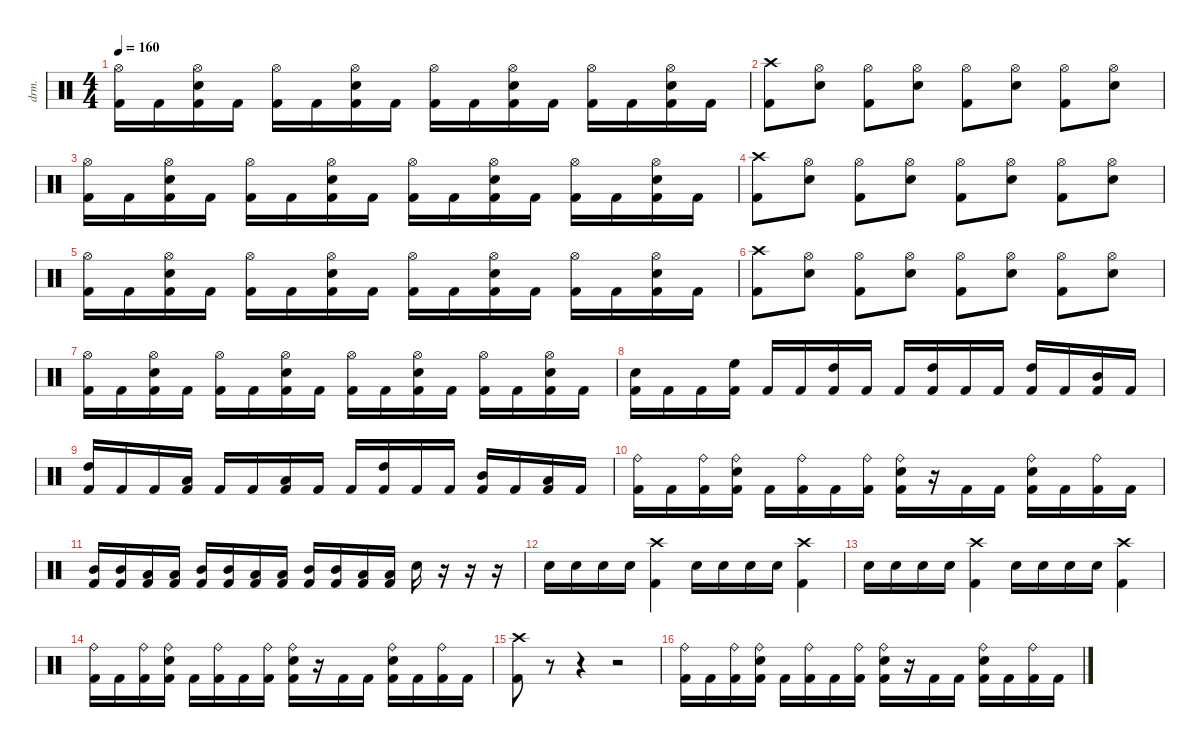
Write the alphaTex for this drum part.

\defaultSystemsLayout 4
\hideDynamics
\bracketExtendMode nobrackets
\track ("Menza" "drm.") {instrument percussion}
\staff {score}
\articulation defaults
\ts (4 4)
\tempo 160
\clef neutral
\ks c
("Hi-Hat (open)" "Kick (hit) 2").16{dy f} "Kick (hit) 2".16 ("Hi-Hat (open)" "Snare (hit) 2" "Kick (hit) 2").16 "Kick (hit) 2".16 ("Hi-Hat (open)" "Kick (hit) 2").16 "Kick (hit) 2".16 ("Hi-Hat (open)" "Snare (hit) 2" "Kick (hit) 2").16 "Kick (hit) 2".16 ("Hi-Hat (open)" "Kick (hit) 2").16 "Kick (hit) 2".16 ("Hi-Hat (open)" "Snare (hit) 2" "Kick (hit) 2").16 "Kick (hit) 2".16 ("Hi-Hat (open)" "Kick (hit) 2").16 "Kick (hit) 2".16 ("Hi-Hat (open)" "Snare (hit) 2" "Kick (hit) 2").16 "Kick (hit) 2".16 |
("Crash high (hit)" "Kick (hit) 2").8 ("Hi-Hat (open)" "Snare (hit) 2").8 ("Hi-Hat (open)" "Kick (hit) 2").8 ("Hi-Hat (open)" "Snare (hit) 2").8 ("Hi-Hat (open)" "Kick (hit) 2").8 ("Hi-Hat (open)" "Snare (hit) 2").8 ("Hi-Hat (open)" "Kick (hit) 2").8 ("Hi-Hat (open)" "Snare (hit) 2").8 |
("Hi-Hat (open)" "Kick (hit) 2").16 "Kick (hit) 2".16 ("Hi-Hat (open)" "Snare (hit) 2" "Kick (hit) 2").16 "Kick (hit) 2".16 ("Hi-Hat (open)" "Kick (hit) 2").16 "Kick (hit) 2".16 ("Hi-Hat (open)" "Snare (hit) 2" "Kick (hit) 2").16 "Kick (hit) 2".16 ("Hi-Hat (open)" "Kick (hit) 2").16 "Kick (hit) 2".16 ("Hi-Hat (open)" "Snare (hit) 2" "Kick (hit) 2").16 "Kick (hit) 2".16 ("Hi-Hat (open)" "Kick (hit) 2").16 "Kick (hit) 2".16 ("Hi-Hat (open)" "Snare (hit) 2" "Kick (hit) 2").16 "Kick (hit) 2".16 |
("Crash high (hit)" "Kick (hit) 2").8 ("Hi-Hat (open)" "Snare (hit) 2").8 ("Hi-Hat (open)" "Kick (hit) 2").8 ("Hi-Hat (open)" "Snare (hit) 2").8 ("Hi-Hat (open)" "Kick (hit) 2").8 ("Hi-Hat (open)" "Snare (hit) 2").8 ("Hi-Hat (open)" "Kick (hit) 2").8 ("Hi-Hat (open)" "Snare (hit) 2").8 |
("Hi-Hat (open)" "Kick (hit) 2").16 "Kick (hit) 2".16 ("Hi-Hat (open)" "Snare (hit) 2" "Kick (hit) 2").16 "Kick (hit) 2".16 ("Hi-Hat (open)" "Kick (hit) 2").16 "Kick (hit) 2".16 ("Hi-Hat (open)" "Snare (hit) 2" "Kick (hit) 2").16 "Kick (hit) 2".16 ("Hi-Hat (open)" "Kick (hit) 2").16 "Kick (hit) 2".16 ("Hi-Hat (open)" "Snare (hit) 2" "Kick (hit) 2").16 "Kick (hit) 2".16 ("Hi-Hat (open)" "Kick (hit) 2").16 "Kick (hit) 2".16 ("Hi-Hat (open)" "Snare (hit) 2" "Kick (hit) 2").16 "Kick (hit) 2".16 |
("Crash high (hit)" "Kick (hit) 2").8 ("Hi-Hat (open)" "Snare (hit) 2").8 ("Hi-Hat (open)" "Kick (hit) 2").8 ("Hi-Hat (open)" "Snare (hit) 2").8 ("Hi-Hat (open)" "Kick (hit) 2").8 ("Hi-Hat (open)" "Snare (hit) 2").8 ("Hi-Hat (open)" "Kick (hit) 2").8 ("Hi-Hat (open)" "Snare (hit) 2").8 |
("Hi-Hat (open)" "Kick (hit) 2").16 "Kick (hit) 2".16 ("Hi-Hat (open)" "Snare (hit) 2" "Kick (hit) 2").16 "Kick (hit) 2".16 ("Hi-Hat (open)" "Kick (hit) 2").16 "Kick (hit) 2".16 ("Hi-Hat (open)" "Snare (hit) 2" "Kick (hit) 2").16 "Kick (hit) 2".16 ("Hi-Hat (open)" "Kick (hit) 2").16 "Kick (hit) 2".16 ("Hi-Hat (open)" "Snare (hit) 2" "Kick (hit) 2").16 "Kick (hit) 2".16 ("Hi-Hat (open)" "Kick (hit) 2").16 "Kick (hit) 2".16 ("Hi-Hat (open)" "Snare (hit) 2" "Kick (hit) 2").16 "Kick (hit) 2".16 |
("Snare (hit) 2" "Kick (hit) 2").16 "Kick (hit) 2".16 "Kick (hit) 2".16 ("High Floor Tom (hit)" "Kick (hit) 2").16 "Kick (hit) 2".16 "Kick (hit) 2".16 ("High Tom (hit)" "Kick (hit) 2").16 "Kick (hit) 2".16 "Kick (hit) 2".16 ("High Tom (hit)" "Kick (hit) 2").16 "Kick (hit) 2".16 "Kick (hit) 2".16 ("High Tom (hit)" "Kick (hit) 2").16 "Kick (hit) 2".16 ("Mid Tom (hit)" "Kick (hit) 2").16 "Kick (hit) 2".16 |
("High Tom (hit)" "Kick (hit) 2").16 "Kick (hit) 2".16 "Kick (hit) 2".16 ("Low Tom (hit)" "Kick (hit) 2").16 "Kick (hit) 2".16 "Kick (hit) 2".16 ("Low Tom (hit)" "Kick (hit) 2").16 "Kick (hit) 2".16 "Kick (hit) 2".16 ("High Tom (hit)" "Kick (hit) 2").16 "Kick (hit) 2".16 "Kick (hit) 2".16 ("Mid Tom (hit)" "Kick (hit) 2").16 "Kick (hit) 2".16 ("Low Tom (hit)" "Kick (hit) 2").16 "Kick (hit) 2".16 |
("Ride (bell)" "Kick (hit) 2").16 "Kick (hit) 2".16 ("Ride (bell)" "Kick (hit) 2").16 ("Ride (bell)" "Snare (hit) 2" "Kick (hit) 2").16 "Kick (hit) 2".16 ("Ride (bell)" "Kick (hit) 2").16 "Kick (hit) 2".16 ("Ride (bell)" "Kick (hit) 2").16 ("Ride (bell)" "Snare (hit) 2" "Kick (hit) 2").16 r.16 "Kick (hit) 2".16 "Kick (hit) 2".16 ("Ride (bell)" "Snare (hit) 2" "Kick (hit) 2").16 "Kick (hit) 2".16 ("Ride (bell)" "Kick (hit) 2").16 "Kick (hit) 2".16 |
("Mid Tom (hit)" "Kick (hit) 2").16 ("Mid Tom (hit)" "Kick (hit) 2").16 ("Low Tom (hit)" "Kick (hit) 2").16 ("Low Tom (hit)" "Kick (hit) 2").16 ("Mid Tom (hit)" "Kick (hit) 2").16 ("Mid Tom (hit)" "Kick (hit) 2").16 ("Low Tom (hit)" "Kick (hit) 2").16 ("Low Tom (hit)" "Kick (hit) 2").16 ("Mid Tom (hit)" "Kick (hit) 2").16 ("Mid Tom (hit)" "Kick (hit) 2").16 ("Low Tom (hit)" "Kick (hit) 2").16 ("Low Tom (hit)" "Kick (hit) 2").16 "Snare (hit) 2".16 r.16 r.16 r.16 |
"Snare (hit) 2".16 "Snare (hit) 2".16 "Snare (hit) 2".16 "Snare (hit) 2".16 ("Crash high (hit)" "Kick (hit) 2").4 "Snare (hit) 2".16 "Snare (hit) 2".16 "Snare (hit) 2".16 "Snare (hit) 2".16 ("Crash high (hit)" "Kick (hit) 2").4 |
"Snare (hit) 2".16 "Snare (hit) 2".16 "Snare (hit) 2".16 "Snare (hit) 2".16 ("Crash high (hit)" "Kick (hit) 2").4 "Snare (hit) 2".16 "Snare (hit) 2".16 "Snare (hit) 2".16 "Snare (hit) 2".16 ("Crash high (hit)" "Kick (hit) 2").4 |
("Ride (bell)" "Kick (hit) 2").16 "Kick (hit) 2".16 ("Ride (bell)" "Kick (hit) 2").16 ("Ride (bell)" "Snare (hit) 2" "Kick (hit) 2").16 "Kick (hit) 2".16 ("Ride (bell)" "Kick (hit) 2").16 "Kick (hit) 2".16 ("Ride (bell)" "Kick (hit) 2").16 ("Ride (bell)" "Snare (hit) 2" "Kick (hit) 2").16 r.16 "Kick (hit) 2".16 "Kick (hit) 2".16 ("Ride (bell)" "Snare (hit) 2" "Kick (hit) 2").16 "Kick (hit) 2".16 ("Ride (bell)" "Kick (hit) 2").16 "Kick (hit) 2".16 |
("Crash high (hit)" "Kick (hit) 2").8 r.8 r.4 r.2 |
("Ride (bell)" "Kick (hit) 2").16 "Kick (hit) 2".16 ("Ride (bell)" "Kick (hit) 2").16 ("Ride (bell)" "Snare (hit) 2" "Kick (hit) 2").16 "Kick (hit) 2".16 ("Ride (bell)" "Kick (hit) 2").16 "Kick (hit) 2".16 ("Ride (bell)" "Kick (hit) 2").16 ("Ride (bell)" "Snare (hit) 2" "Kick (hit) 2").16 r.16 "Kick (hit) 2".16 "Kick (hit) 2".16 ("Ride (bell)" "Snare (hit) 2" "Kick (hit) 2").16 "Kick (hit) 2".16 ("Ride (bell)" "Kick (hit) 2").16 "Kick (hit) 2".16
